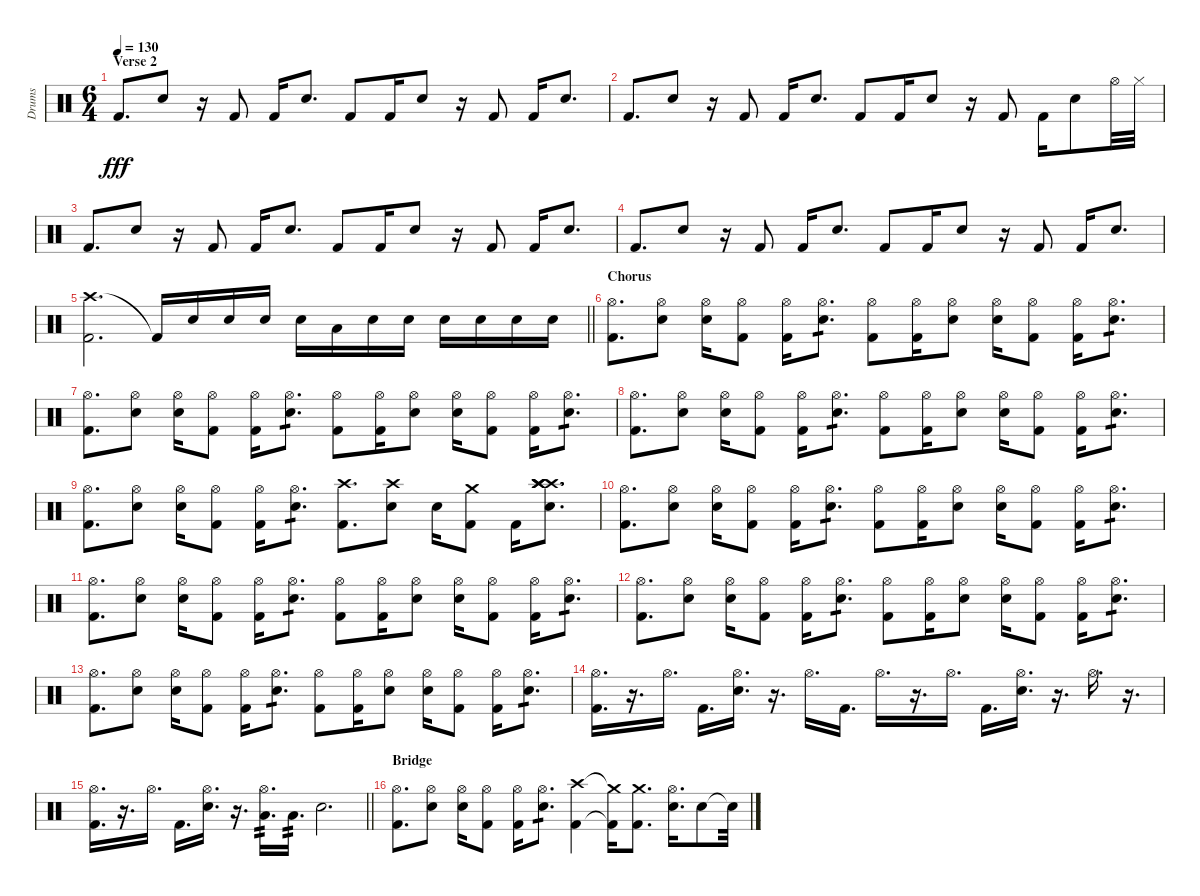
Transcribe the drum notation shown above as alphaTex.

\track ("Drums" "Drums") {instrument percussion}
\staff {score}
\articulation defaults
\ts (6 4)
\section ("" "Verse 2")
\tempo 130
\clef neutral
\ks c "Kick (hit) 2".8{d dy fff} "Snare (hit) 2".8
r.16 "Kick (hit) 2".8 "Kick (hit) 2".16 "Snare (hit) 2".8{d} "Kick (hit) 2".8 "Kick (hit) 2".16 "Snare (hit) 2".8 r.16 "Kick (hit) 2".8 "Kick (hit) 2".16 "Snare (hit) 2".8{d} |
"Kick (hit) 2".8{d} "Snare (hit) 2".8 r.16 "Kick (hit) 2".8 "Kick (hit) 2".16 "Snare (hit) 2".8{d} "Kick (hit) 2".8 "Kick (hit) 2".16 "Snare (hit) 2".8 r.16 "Kick (hit) 2".8 "Kick (hit) 2".16 "Snare (hit) 2".8 "Hi-Hat (open)".32 "Hi-Hat (closed)".32 |
"Kick (hit) 2".8{d} "Snare (hit) 2".8 r.16 "Kick (hit) 2".8 "Kick (hit) 2".16 "Snare (hit) 2".8{d} "Kick (hit) 2".8 "Kick (hit) 2".16 "Snare (hit) 2".8 r.16 "Kick (hit) 2".8 "Kick (hit) 2".16 "Snare (hit) 2".8{d} |
"Kick (hit) 2".8{d} "Snare (hit) 2".8 r.16 "Kick (hit) 2".8 "Kick (hit) 2".16 "Snare (hit) 2".8{d} "Kick (hit) 2".8 "Kick (hit) 2".16 "Snare (hit) 2".8 r.16 "Kick (hit) 2".8 "Kick (hit) 2".16 "Snare (hit) 2".8{d} |
\barLineRight lightlight
("Crash high (hit)" "Kick (hit) 2").2{d} "Kick (hit) 2"{t}.16 "Snare (hit) 2".16 "Snare (hit) 2".16 "Snare (hit) 2".16 "Snare (hit) 2".16 "Low Tom (hit)".16 "Snare (hit) 2".16 "Snare (hit) 2".16 "Snare (hit) 2".16 "Snare (hit) 2".16 "Snare (hit) 2".16 "Snare (hit) 2".16 |
\section ("" "Chorus")
("Hi-Hat (open)" "Kick (hit) 2").8{d} ("Hi-Hat (open)" "Snare (hit) 2").8 ("Hi-Hat (open)" "Snare (hit) 2").16 ("Hi-Hat (open)" "Kick (hit) 2").8 ("Hi-Hat (open)" "Kick (hit) 2").16 ("Hi-Hat (open)" "Snare (hit) 2").8{d tp 1} ("Hi-Hat (open)" "Kick (hit) 2").8 ("Hi-Hat (open)" "Kick (hit) 2").16 ("Hi-Hat (open)" "Snare (hit) 2").8 ("Hi-Hat (open)" "Snare (hit) 2").16 ("Hi-Hat (open)" "Kick (hit) 2").8 ("Hi-Hat (open)" "Kick (hit) 2").16 ("Hi-Hat (open)" "Snare (hit) 2").8{d tp 1} |
("Hi-Hat (open)" "Kick (hit) 2").8{d} ("Hi-Hat (open)" "Snare (hit) 2").8 ("Hi-Hat (open)" "Snare (hit) 2").16 ("Hi-Hat (open)" "Kick (hit) 2").8 ("Hi-Hat (open)" "Kick (hit) 2").16 ("Hi-Hat (open)" "Snare (hit) 2").8{d tp 1} ("Hi-Hat (open)" "Kick (hit) 2").8 ("Hi-Hat (open)" "Kick (hit) 2").16 ("Hi-Hat (open)" "Snare (hit) 2").8 ("Hi-Hat (open)" "Snare (hit) 2").16 ("Hi-Hat (open)" "Kick (hit) 2").8 ("Hi-Hat (open)" "Kick (hit) 2").16 ("Hi-Hat (open)" "Snare (hit) 2").8{d tp 1} |
("Hi-Hat (open)" "Kick (hit) 2").8{d} ("Hi-Hat (open)" "Snare (hit) 2").8 ("Hi-Hat (open)" "Snare (hit) 2").16 ("Hi-Hat (open)" "Kick (hit) 2").8 ("Hi-Hat (open)" "Kick (hit) 2").16 ("Hi-Hat (open)" "Snare (hit) 2").8{d tp 1} ("Hi-Hat (open)" "Kick (hit) 2").8 ("Hi-Hat (open)" "Kick (hit) 2").16 ("Hi-Hat (open)" "Snare (hit) 2").8 ("Hi-Hat (open)" "Snare (hit) 2").16 ("Hi-Hat (open)" "Kick (hit) 2").8 ("Hi-Hat (open)" "Kick (hit) 2").16 ("Hi-Hat (open)" "Snare (hit) 2").8{d tp 1} |
("Hi-Hat (open)" "Kick (hit) 2").8{d} ("Hi-Hat (open)" "Snare (hit) 2").8 ("Hi-Hat (open)" "Snare (hit) 2").16 ("Hi-Hat (open)" "Kick (hit) 2").8 ("Hi-Hat (open)" "Kick (hit) 2").16 ("Hi-Hat (open)" "Snare (hit) 2").8{d tp 1} ("Crash high (hit)" "Kick (hit) 2").8{d} ("Crash high (hit)" "Snare (hit) 2").8 "Snare (hit) 2".16 ("Crash medium (hit)" "Kick (hit) 2").8 "Kick (hit) 2".16 ("Crash high (hit)" "Crash high (hit)" "Crash high (hit)" "Crash high (hit)" "Snare (hit) 2").8{d} |
("Hi-Hat (open)" "Kick (hit) 2").8{d} ("Hi-Hat (open)" "Snare (hit) 2").8 ("Hi-Hat (open)" "Snare (hit) 2").16 ("Hi-Hat (open)" "Kick (hit) 2").8 ("Hi-Hat (open)" "Kick (hit) 2").16 ("Hi-Hat (open)" "Snare (hit) 2").8{d tp 1} ("Hi-Hat (open)" "Kick (hit) 2").8 ("Hi-Hat (open)" "Kick (hit) 2").16 ("Hi-Hat (open)" "Snare (hit) 2").8 ("Hi-Hat (open)" "Snare (hit) 2").16 ("Hi-Hat (open)" "Kick (hit) 2").8 ("Hi-Hat (open)" "Kick (hit) 2").16 ("Hi-Hat (open)" "Snare (hit) 2").8{d tp 1} |
("Hi-Hat (open)" "Kick (hit) 2").8{d} ("Hi-Hat (open)" "Snare (hit) 2").8 ("Hi-Hat (open)" "Snare (hit) 2").16 ("Hi-Hat (open)" "Kick (hit) 2").8 ("Hi-Hat (open)" "Kick (hit) 2").16 ("Hi-Hat (open)" "Snare (hit) 2").8{d tp 1} ("Hi-Hat (open)" "Kick (hit) 2").8 ("Hi-Hat (open)" "Kick (hit) 2").16 ("Hi-Hat (open)" "Snare (hit) 2").8 ("Hi-Hat (open)" "Snare (hit) 2").16 ("Hi-Hat (open)" "Kick (hit) 2").8 ("Hi-Hat (open)" "Kick (hit) 2").16 ("Hi-Hat (open)" "Snare (hit) 2").8{d tp 1} |
("Hi-Hat (open)" "Kick (hit) 2").8{d} ("Hi-Hat (open)" "Snare (hit) 2").8 ("Hi-Hat (open)" "Snare (hit) 2").16 ("Hi-Hat (open)" "Kick (hit) 2").8 ("Hi-Hat (open)" "Kick (hit) 2").16 ("Hi-Hat (open)" "Snare (hit) 2").8{d tp 1} ("Hi-Hat (open)" "Kick (hit) 2").8 ("Hi-Hat (open)" "Kick (hit) 2").16 ("Hi-Hat (open)" "Snare (hit) 2").8 ("Hi-Hat (open)" "Snare (hit) 2").16 ("Hi-Hat (open)" "Kick (hit) 2").8 ("Hi-Hat (open)" "Kick (hit) 2").16 ("Hi-Hat (open)" "Snare (hit) 2").8{d tp 1} |
("Hi-Hat (open)" "Kick (hit) 2").8{d} ("Hi-Hat (open)" "Snare (hit) 2").8 ("Hi-Hat (open)" "Snare (hit) 2").16 ("Hi-Hat (open)" "Kick (hit) 2").8 ("Hi-Hat (open)" "Kick (hit) 2").16 ("Hi-Hat (open)" "Snare (hit) 2").8{d tp 1} ("Hi-Hat (open)" "Kick (hit) 2").8 ("Hi-Hat (open)" "Kick (hit) 2").16 ("Hi-Hat (open)" "Snare (hit) 2").8 ("Hi-Hat (open)" "Snare (hit) 2").16 ("Hi-Hat (open)" "Kick (hit) 2").8 ("Hi-Hat (open)" "Kick (hit) 2").16 ("Hi-Hat (open)" "Snare (hit) 2").8{d tp 1} |
("Hi-Hat (open)" "Kick (hit) 2").16{d} r.16{d} "Hi-Hat (open)".16{d} "Kick (hit) 2".16{d} ("Hi-Hat (open)" "Snare (hit) 2").16{d} r.16{d} "Hi-Hat (open)".16{d} "Kick (hit) 2".16{d} "Hi-Hat (open)".16{d} r.16{d} "Hi-Hat (open)".16{d} "Kick (hit) 2".16{d} ("Hi-Hat (open)" "Snare (hit) 2").16{d} r.16{d} "Hi-Hat (open)".16{d} r.16{d} |
\barLineRight lightlight
("Hi-Hat (open)" "Kick (hit) 2").16{d} r.16{d} "Hi-Hat (open)".16{d} "Kick (hit) 2".16{d} ("Hi-Hat (open)" "Snare (hit) 2").16{d} r.16{d} ("Hi-Hat (open)" "Low Floor Tom (hit)").16{d tp 2} "Low Tom (hit)".16{d tp 2} "Snare (hit) 2".2{d} |
\section ("" "Bridge")
("Hi-Hat (open)" "Kick (hit) 2").8{d} ("Hi-Hat (open)" "Snare (hit) 2").8 ("Hi-Hat (open)" "Snare (hit) 2").16 ("Hi-Hat (open)" "Kick (hit) 2").8 ("Hi-Hat (open)" "Kick (hit) 2").16 ("Hi-Hat (open)" "Snare (hit) 2").8{d tp 1} ("Crash high (hit)" "Kick (hit) 2").4 ("Crash medium (hit)"{t} "Kick (hit) 2"{t}).16 ("Crash medium (hit)" "Kick (hit) 2").8{d} ("Hi-Hat (open)" "Snare (hit) 2").16{d} "Snare (hit) 2".8 "Snare (hit) 2"{t}.32
